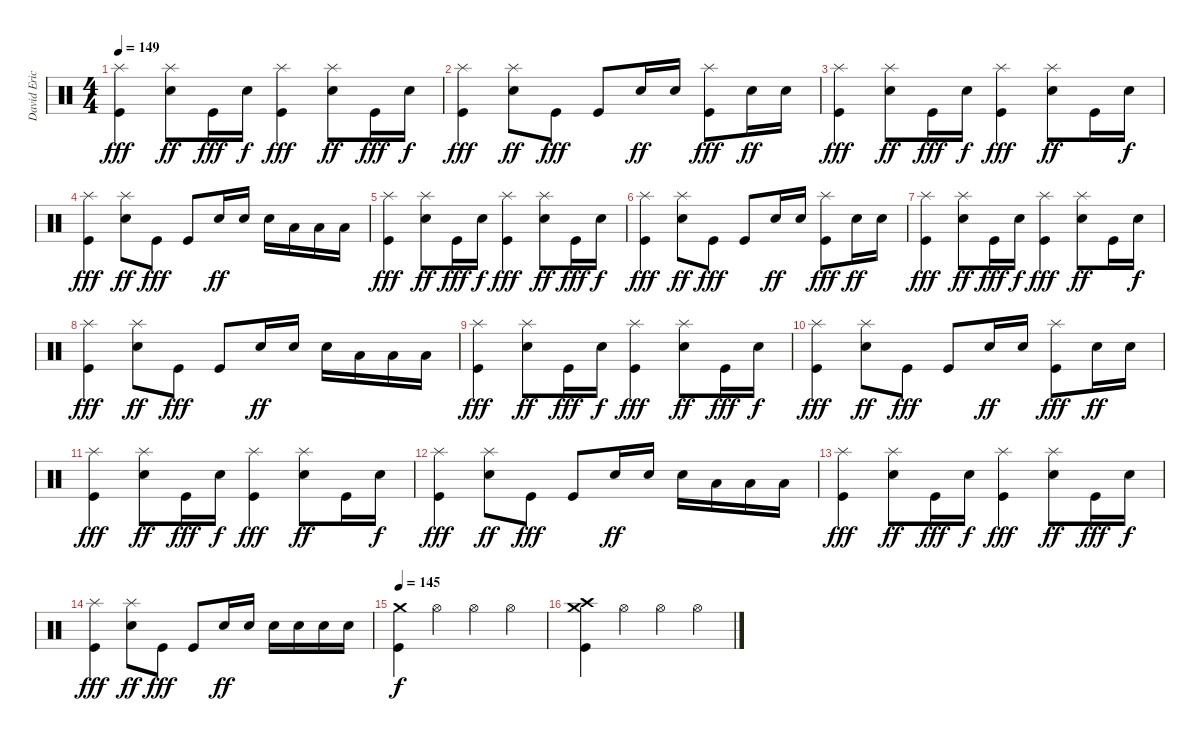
\track ("David Eric Grohl" "David Eric") {instrument percussion}
\staff {score}
\articulation defaults
\ts (4 4)
\tempo 149
\clef neutral
\ks c
("Splash (hit)" "Kick (hit)").4{dy fff} ("Splash (hit)" "Snare (hit) 2").8{dy ff} "Kick (hit)".16{dy fff} "Snare (hit) 2".16{dy f} ("Splash (hit)" "Kick (hit)").4{dy fff} ("Splash (hit)" "Snare (hit) 2").8{dy ff} "Kick (hit)".16{dy fff} "Snare (hit) 2".16{dy f} |
("Splash (hit)" "Kick (hit)").4{dy fff} ("Splash (hit)" "Snare (hit) 2").8{dy ff} "Kick (hit)".8{dy fff} "Kick (hit)".8 "Snare (hit) 2".16{dy ff} "Snare (hit) 2".16 ("Splash (hit)" "Kick (hit)").8{dy fff} "Snare (hit) 2".16{dy ff} "Snare (hit) 2".16 |
("Splash (hit)" "Kick (hit)").4{dy fff} ("Splash (hit)" "Snare (hit) 2").8{dy ff} "Kick (hit)".16{dy fff} "Snare (hit) 2".16{dy f} ("Splash (hit)" "Kick (hit)").4{dy fff} ("Splash (hit)" "Snare (hit) 2").8{dy ff} "Kick (hit)".16 "Snare (hit) 2".16{dy f} |
("Splash (hit)" "Kick (hit)").4{dy fff} ("Splash (hit)" "Snare (hit) 2").8{dy ff} "Kick (hit)".8{dy fff} "Kick (hit)".8 "Snare (hit) 2".16{dy ff} "Snare (hit) 2".16 "Snare (hit) 2".16 "Low Tom (hit)".16 "Low Tom (hit)".16 "Low Tom (hit)".16 |
("Splash (hit)" "Kick (hit)").4{dy fff} ("Splash (hit)" "Snare (hit) 2").8{dy ff} "Kick (hit)".16{dy fff} "Snare (hit) 2".16{dy f} ("Splash (hit)" "Kick (hit)").4{dy fff} ("Splash (hit)" "Snare (hit) 2").8{dy ff} "Kick (hit)".16{dy fff} "Snare (hit) 2".16{dy f} |
("Splash (hit)" "Kick (hit)").4{dy fff} ("Splash (hit)" "Snare (hit) 2").8{dy ff} "Kick (hit)".8{dy fff} "Kick (hit)".8 "Snare (hit) 2".16{dy ff} "Snare (hit) 2".16 ("Splash (hit)" "Kick (hit)").8{dy fff} "Snare (hit) 2".16{dy ff} "Snare (hit) 2".16 |
("Splash (hit)" "Kick (hit)").4{dy fff} ("Splash (hit)" "Snare (hit) 2").8{dy ff} "Kick (hit)".16{dy fff} "Snare (hit) 2".16{dy f} ("Splash (hit)" "Kick (hit)").4{dy fff} ("Splash (hit)" "Snare (hit) 2").8{dy ff} "Kick (hit)".16 "Snare (hit) 2".16{dy f} |
("Splash (hit)" "Kick (hit)").4{dy fff} ("Splash (hit)" "Snare (hit) 2").8{dy ff} "Kick (hit)".8{dy fff} "Kick (hit)".8 "Snare (hit) 2".16{dy ff} "Snare (hit) 2".16 "Snare (hit) 2".16 "Low Tom (hit)".16 "Low Tom (hit)".16 "Low Tom (hit)".16 |
("Splash (hit)" "Kick (hit)").4{dy fff} ("Splash (hit)" "Snare (hit) 2").8{dy ff} "Kick (hit)".16{dy fff} "Snare (hit) 2".16{dy f} ("Splash (hit)" "Kick (hit)").4{dy fff} ("Splash (hit)" "Snare (hit) 2").8{dy ff} "Kick (hit)".16{dy fff} "Snare (hit) 2".16{dy f} |
("Splash (hit)" "Kick (hit)").4{dy fff} ("Splash (hit)" "Snare (hit) 2").8{dy ff} "Kick (hit)".8{dy fff} "Kick (hit)".8 "Snare (hit) 2".16{dy ff} "Snare (hit) 2".16 ("Splash (hit)" "Kick (hit)").8{dy fff} "Snare (hit) 2".16{dy ff} "Snare (hit) 2".16 |
("Splash (hit)" "Kick (hit)").4{dy fff} ("Splash (hit)" "Snare (hit) 2").8{dy ff} "Kick (hit)".16{dy fff} "Snare (hit) 2".16{dy f} ("Splash (hit)" "Kick (hit)").4{dy fff} ("Splash (hit)" "Snare (hit) 2").8{dy ff} "Kick (hit)".16 "Snare (hit) 2".16{dy f} |
("Splash (hit)" "Kick (hit)").4{dy fff} ("Splash (hit)" "Snare (hit) 2").8{dy ff} "Kick (hit)".8{dy fff} "Kick (hit)".8 "Snare (hit) 2".16{dy ff} "Snare (hit) 2".16 "Snare (hit) 2".16 "Low Tom (hit)".16 "Low Tom (hit)".16 "Low Tom (hit)".16 |
("Splash (hit)" "Kick (hit)").4{dy fff} ("Splash (hit)" "Snare (hit) 2").8{dy ff} "Kick (hit)".16{dy fff} "Snare (hit) 2".16{dy f} ("Splash (hit)" "Kick (hit)").4{dy fff} ("Splash (hit)" "Snare (hit) 2").8{dy ff} "Kick (hit)".16{dy fff} "Snare (hit) 2".16{dy f} |
("Splash (hit)" "Kick (hit)").4{dy fff} ("Splash (hit)" "Snare (hit) 2").8{dy ff} "Kick (hit)".8{dy fff} "Kick (hit)".8 "Snare (hit) 2".16{dy ff} "Snare (hit) 2".16 "Snare (hit) 2".16 "Snare (hit) 2".16 "Snare (hit) 2".16 "Snare (hit) 2".16 |
\tempo 145
("Crash medium (hit)" "Kick (hit)").4{dy f} "Hi-Hat (open)".4 "Hi-Hat (open)".4 "Hi-Hat (open)".4 |
("Crash medium (hit)" "Crash high (hit)" "Kick (hit)").4 "Hi-Hat (open)".4 "Hi-Hat (open)".4 "Hi-Hat (open)".4
